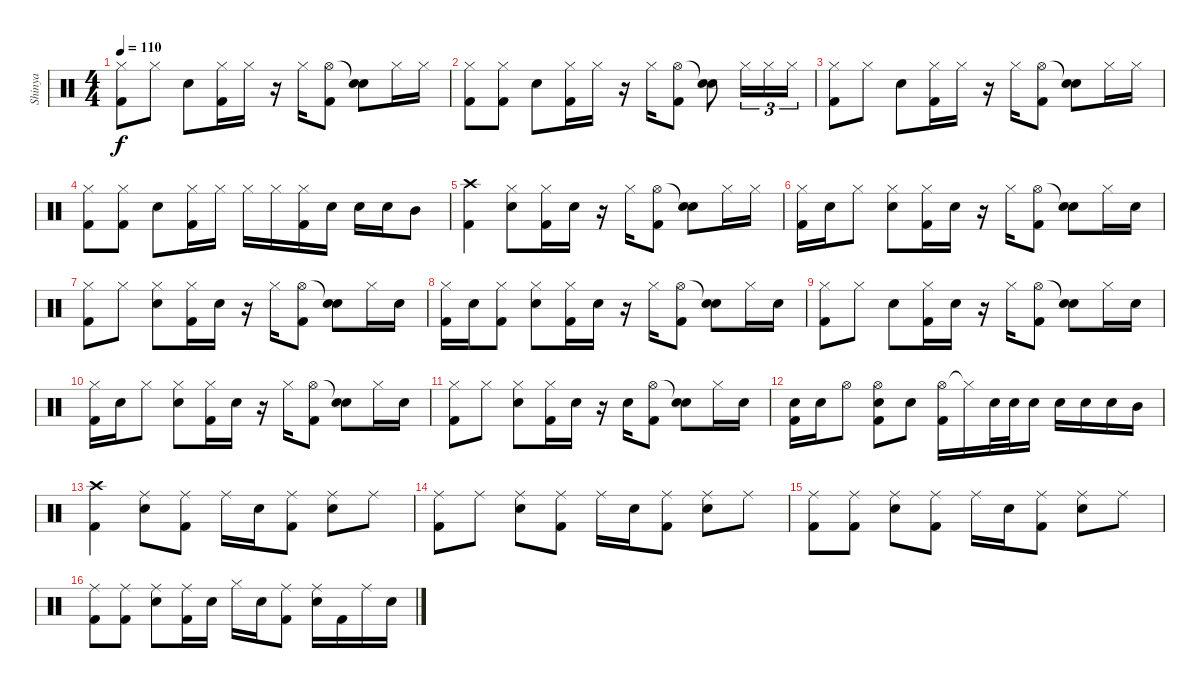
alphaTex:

\track ("Shinya" "Shinya") {instrument percussion}
\staff {score}
\articulation defaults
\ts (4 4)
\tempo 110
\clef neutral
\ks c
("Hi-Hat (closed)" "Kick (hit) 2").8{dy f} "Hi-Hat (closed)".8 "Snare (hit) 2".8 ("Hi-Hat (closed)" "Kick (hit) 2").16 "Hi-Hat (closed)".16 r.16 "Hi-Hat (closed)".16 ("Hi-Hat (open)" "Kick (hit) 2").8 ("Snare (hit)"{t} "Snare (hit) 2").8 "Hi-Hat (closed)".16 "Hi-Hat (closed)".16 |
("Kick (hit) 2" "Hi-Hat (closed)").8 ("Kick (hit) 2" "Hi-Hat (closed)").8 "Snare (hit) 2".8 ("Hi-Hat (closed)" "Kick (hit) 2").16 "Hi-Hat (closed)".16 r.16 "Hi-Hat (closed)".16 ("Hi-Hat (open)" "Kick (hit) 2").8 ("Snare (hit)"{t} "Snare (hit) 2").8 "Hi-Hat (closed)".16{tu (3 2)} "Hi-Hat (closed)".16{tu (3 2)} "Hi-Hat (closed)".16{tu (3 2)} |
("Hi-Hat (closed)" "Kick (hit) 2").8 "Hi-Hat (closed)".8 "Snare (hit) 2".8 ("Hi-Hat (closed)" "Kick (hit) 2").16 "Hi-Hat (closed)".16 r.16 "Hi-Hat (closed)".16 ("Hi-Hat (open)" "Kick (hit) 2").8 ("Snare (hit)"{t} "Snare (hit) 2").8 "Hi-Hat (closed)".16 "Hi-Hat (closed)".16 |
("Hi-Hat (closed)" "Kick (hit) 2").8 ("Hi-Hat (closed)" "Kick (hit) 2").8 "Snare (hit) 2".8 ("Hi-Hat (closed)" "Kick (hit) 2").16 "Hi-Hat (closed)".16 "Hi-Hat (closed)".16 "Hi-Hat (closed)".16 ("Hi-Hat (closed)" "Kick (hit) 2").16 "Snare (hit) 2".16 "Snare (hit) 2".16 "Snare (hit) 2".16 "Mid Tom (hit)".8 |
("Crash high (hit)" "Kick (hit) 2").4 ("Hi-Hat (closed)" "Snare (hit) 2").8 ("Hi-Hat (closed)" "Kick (hit) 2").16 "Snare (hit) 2".16 r.16 "Hi-Hat (closed)".16 ("Hi-Hat (open)" "Kick (hit) 2").8 ("Snare (hit)"{t} "Snare (hit) 2").8 "Hi-Hat (closed)".16 "Hi-Hat (closed)".16 |
("Hi-Hat (closed)" "Kick (hit) 2").16 "Snare (hit) 2".16 "Hi-Hat (closed)".8 ("Hi-Hat (closed)" "Snare (hit) 2").8 ("Hi-Hat (closed)" "Kick (hit) 2").16 "Snare (hit) 2".16 r.16 "Hi-Hat (closed)".16 ("Hi-Hat (open)" "Kick (hit) 2").8 ("Snare (hit)"{t} "Snare (hit) 2").8 "Hi-Hat (closed)".16 "Snare (hit) 2".16 |
("Hi-Hat (closed)" "Kick (hit) 2").8 "Hi-Hat (closed)".8 ("Hi-Hat (closed)" "Snare (hit) 2").8 ("Hi-Hat (closed)" "Kick (hit) 2").16 "Snare (hit) 2".16 r.16 "Hi-Hat (closed)".16 ("Hi-Hat (open)" "Kick (hit) 2").8 ("Snare (hit)"{t} "Snare (hit) 2").8 "Hi-Hat (closed)".16 "Snare (hit) 2".16 |
("Hi-Hat (closed)" "Kick (hit) 2").16 "Snare (hit) 2".16 ("Hi-Hat (closed)" "Kick (hit) 2").8 ("Hi-Hat (closed)" "Snare (hit) 2").8 ("Hi-Hat (closed)" "Kick (hit) 2").16 "Snare (hit) 2".16 r.16 "Hi-Hat (closed)".16 ("Hi-Hat (open)" "Kick (hit) 2").8 ("Snare (hit)"{t} "Snare (hit) 2").8 "Hi-Hat (closed)".16 "Snare (hit) 2".16 |
("Hi-Hat (closed)" "Kick (hit) 2").8 "Hi-Hat (closed)".8 "Snare (hit) 2".8 ("Hi-Hat (closed)" "Kick (hit) 2").16 "Snare (hit) 2".16 r.16 "Hi-Hat (closed)".16 ("Hi-Hat (open)" "Kick (hit) 2").8 ("Snare (hit)"{t} "Snare (hit) 2").8 "Hi-Hat (closed)".16 "Snare (hit) 2".16 |
("Hi-Hat (closed)" "Kick (hit) 2").16 "Snare (hit) 2".16 "Hi-Hat (closed)".8 ("Hi-Hat (closed)" "Snare (hit) 2").8 ("Hi-Hat (closed)" "Kick (hit) 2").16 "Snare (hit) 2".16 r.16 "Hi-Hat (closed)".16 ("Hi-Hat (open)" "Kick (hit) 2").8 ("Snare (hit)"{t} "Snare (hit) 2").8 "Hi-Hat (closed)".16 "Snare (hit) 2".16 |
("Hi-Hat (closed)" "Kick (hit) 2").8 "Hi-Hat (closed)".8 ("Hi-Hat (closed)" "Snare (hit) 2").8 ("Hi-Hat (closed)" "Kick (hit) 2").16 "Snare (hit) 2".16 r.16 "Snare (hit) 2".16 ("Hi-Hat (open)" "Kick (hit) 2").8 ("Snare (hit)"{t} "Snare (hit) 2").8 "Hi-Hat (closed)".16 "Snare (hit) 2".16 |
("Snare (hit) 2" "Kick (hit) 2").16 "Snare (hit) 2".16 "Hi-Hat (open)".8 ("Kick (hit) 2" "Hi-Hat (open)" "Snare (hit) 2").8 "Snare (hit) 2".8 ("Hi-Hat (open)" "Kick (hit) 2").16 "Hi-Hat (closed)"{t}.16 "Snare (hit) 2".32 "Snare (hit) 2".32 "Snare (hit) 2".16 "Snare (hit) 2".16 "Snare (hit) 2".16 "Snare (hit) 2".16 "Mid Tom (hit)".16 |
("Crash high (hit)" "Kick (hit) 2").4 ("Ride (middle)" "Snare (hit) 2").8 ("Ride (middle)" "Kick (hit) 2").8 "Ride (middle)".16 "Snare (hit) 2".16 ("Ride (middle)" "Kick (hit) 2").8 ("Ride (middle)" "Snare (hit) 2").8 "Ride (middle)".8 |
("Ride (middle)" "Kick (hit) 2").8 "Ride (middle)".8 ("Ride (middle)" "Snare (hit) 2").8 ("Ride (middle)" "Kick (hit) 2").8 "Ride (middle)".16 "Snare (hit) 2".16 ("Ride (middle)" "Kick (hit) 2").8 ("Ride (middle)" "Snare (hit) 2").8 "Ride (middle)".8 |
("Ride (middle)" "Kick (hit) 2").8 ("Ride (middle)" "Kick (hit) 2").8 ("Ride (middle)" "Snare (hit) 2").8 ("Ride (middle)" "Kick (hit) 2").8 "Ride (middle)".16 "Snare (hit) 2".16 ("Ride (middle)" "Kick (hit) 2").8 ("Ride (middle)" "Snare (hit) 2").8 "Ride (middle)".8 |
("Ride (middle)" "Kick (hit) 2").8 ("Ride (middle)" "Kick (hit) 2").8 ("Ride (middle)" "Snare (hit) 2").8 ("Ride (middle)" "Kick (hit) 2").16 "Snare (hit) 2".16 "Hi-Hat (closed)".16 "Snare (hit) 2".16 ("Ride (middle)" "Kick (hit) 2").8 ("Ride (middle)" "Snare (hit) 2").16 "Kick (hit) 2".16 "Ride (middle)".16 "Snare (hit) 2".16
